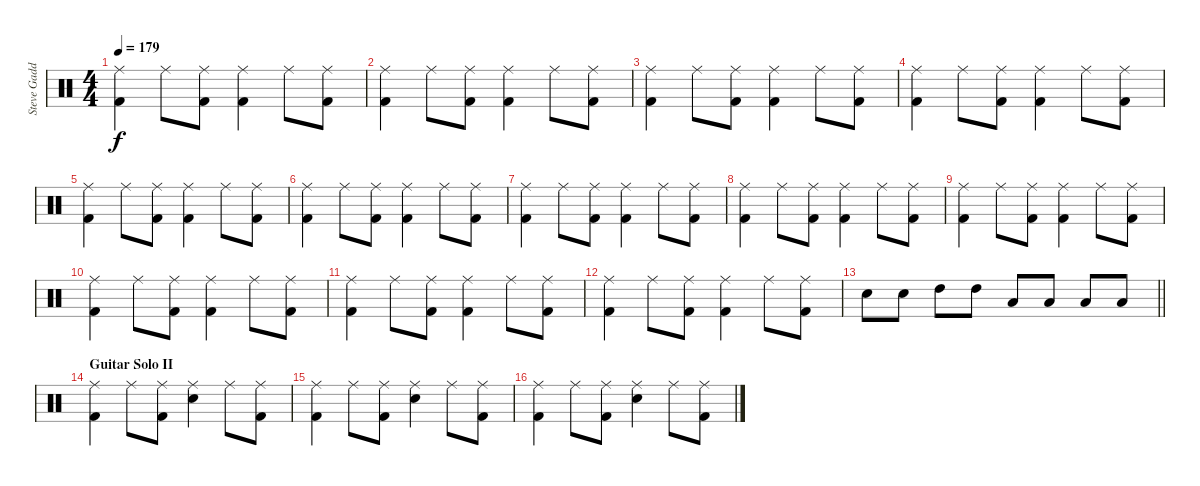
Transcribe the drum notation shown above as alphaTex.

\track ("Steve Gadd" "Steve Gadd") {instrument percussion}
\staff {score}
\articulation defaults
\ts (4 4)
\tempo 179
\clef neutral
\ks c
("Ride (middle)" "Kick (hit) 2").4{dy f} "Ride (middle)".8 ("Ride (middle)" "Kick (hit) 2").8 ("Ride (middle)" "Kick (hit) 2").4 "Ride (middle)".8 ("Ride (middle)" "Kick (hit) 2").8 |
("Ride (middle)" "Kick (hit) 2").4 "Ride (middle)".8 ("Ride (middle)" "Kick (hit) 2").8 ("Ride (middle)" "Kick (hit) 2").4 "Ride (middle)".8 ("Ride (middle)" "Kick (hit) 2").8 |
("Ride (middle)" "Kick (hit) 2").4 "Ride (middle)".8 ("Ride (middle)" "Kick (hit) 2").8 ("Ride (middle)" "Kick (hit) 2").4 "Ride (middle)".8 ("Ride (middle)" "Kick (hit) 2").8 |
("Ride (middle)" "Kick (hit) 2").4 "Ride (middle)".8 ("Ride (middle)" "Kick (hit) 2").8 ("Ride (middle)" "Kick (hit) 2").4 "Ride (middle)".8 ("Ride (middle)" "Kick (hit) 2").8 |
("Ride (middle)" "Kick (hit) 2").4 "Ride (middle)".8 ("Ride (middle)" "Kick (hit) 2").8 ("Ride (middle)" "Kick (hit) 2").4 "Ride (middle)".8 ("Ride (middle)" "Kick (hit) 2").8 |
("Ride (middle)" "Kick (hit) 2").4 "Ride (middle)".8 ("Ride (middle)" "Kick (hit) 2").8 ("Ride (middle)" "Kick (hit) 2").4 "Ride (middle)".8 ("Ride (middle)" "Kick (hit) 2").8 |
("Ride (middle)" "Kick (hit) 2").4 "Ride (middle)".8 ("Ride (middle)" "Kick (hit) 2").8 ("Ride (middle)" "Kick (hit) 2").4 "Ride (middle)".8 ("Ride (middle)" "Kick (hit) 2").8 |
("Ride (middle)" "Kick (hit) 2").4 "Ride (middle)".8 ("Ride (middle)" "Kick (hit) 2").8 ("Ride (middle)" "Kick (hit) 2").4 "Ride (middle)".8 ("Ride (middle)" "Kick (hit) 2").8 |
("Ride (middle)" "Kick (hit) 2").4 "Ride (middle)".8 ("Ride (middle)" "Kick (hit) 2").8 ("Ride (middle)" "Kick (hit) 2").4 "Ride (middle)".8 ("Ride (middle)" "Kick (hit) 2").8 |
("Ride (middle)" "Kick (hit) 2").4 "Ride (middle)".8 ("Ride (middle)" "Kick (hit) 2").8 ("Ride (middle)" "Kick (hit) 2").4 "Ride (middle)".8 ("Ride (middle)" "Kick (hit) 2").8 |
("Ride (middle)" "Kick (hit) 2").4 "Ride (middle)".8 ("Ride (middle)" "Kick (hit) 2").8 ("Ride (middle)" "Kick (hit) 2").4 "Ride (middle)".8 ("Ride (middle)" "Kick (hit) 2").8 |
("Ride (middle)" "Kick (hit) 2").4 "Ride (middle)".8 ("Ride (middle)" "Kick (hit) 2").8 ("Ride (middle)" "Kick (hit) 2").4 "Ride (middle)".8 ("Ride (middle)" "Kick (hit) 2").8 |
\barLineRight lightlight "Electric Snare (hit)".8 "Electric Snare (hit)".8 "High Tom (hit)".8 "High Tom (hit)".8 "Low Tom (hit)".8 "Low Tom (hit)".8 "Low Floor Tom (hit)".8 "Low Floor Tom (hit)".8
|
\section ("" "Guitar Solo II")
("Ride (middle)" "Kick (hit) 2").4 "Ride (middle)".8 ("Ride (middle)" "Kick (hit) 2").8 ("Ride (middle)" "Electric Snare (hit)").4 "Ride (middle)".8 ("Ride (middle)" "Kick (hit) 2").8 |
("Ride (middle)" "Kick (hit) 2").4 "Ride (middle)".8 ("Ride (middle)" "Kick (hit) 2").8 ("Ride (middle)" "Electric Snare (hit)").4 "Ride (middle)".8 ("Ride (middle)" "Kick (hit) 2").8 |
("Ride (middle)" "Kick (hit) 2").4 "Ride (middle)".8 ("Ride (middle)" "Kick (hit) 2").8 ("Ride (middle)" "Electric Snare (hit)").4 "Ride (middle)".8 ("Ride (middle)" "Kick (hit) 2").8
